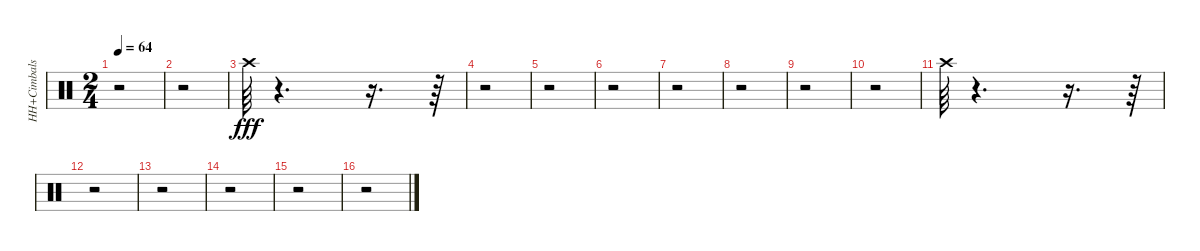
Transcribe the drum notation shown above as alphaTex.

\track ("HH+Cimbals" "HH+Cimbals") {instrument percussion}
\staff {score}
\articulation defaults
\ts (2 4)
\tempo 64
\clef neutral
\ks c
r.2{dy fff} |
r.2 |
"Crash high (hit)".64 r.4{d} r.16{d} r.64 |
r.2 |
r.2 |
r.2 |
r.2 |
r.2 |
r.2 |
r.2 |
"Crash high (hit)".64 r.4{d} r.16{d} r.64 |
r.2 |
r.2 |
r.2 |
r.2 |
r.2
